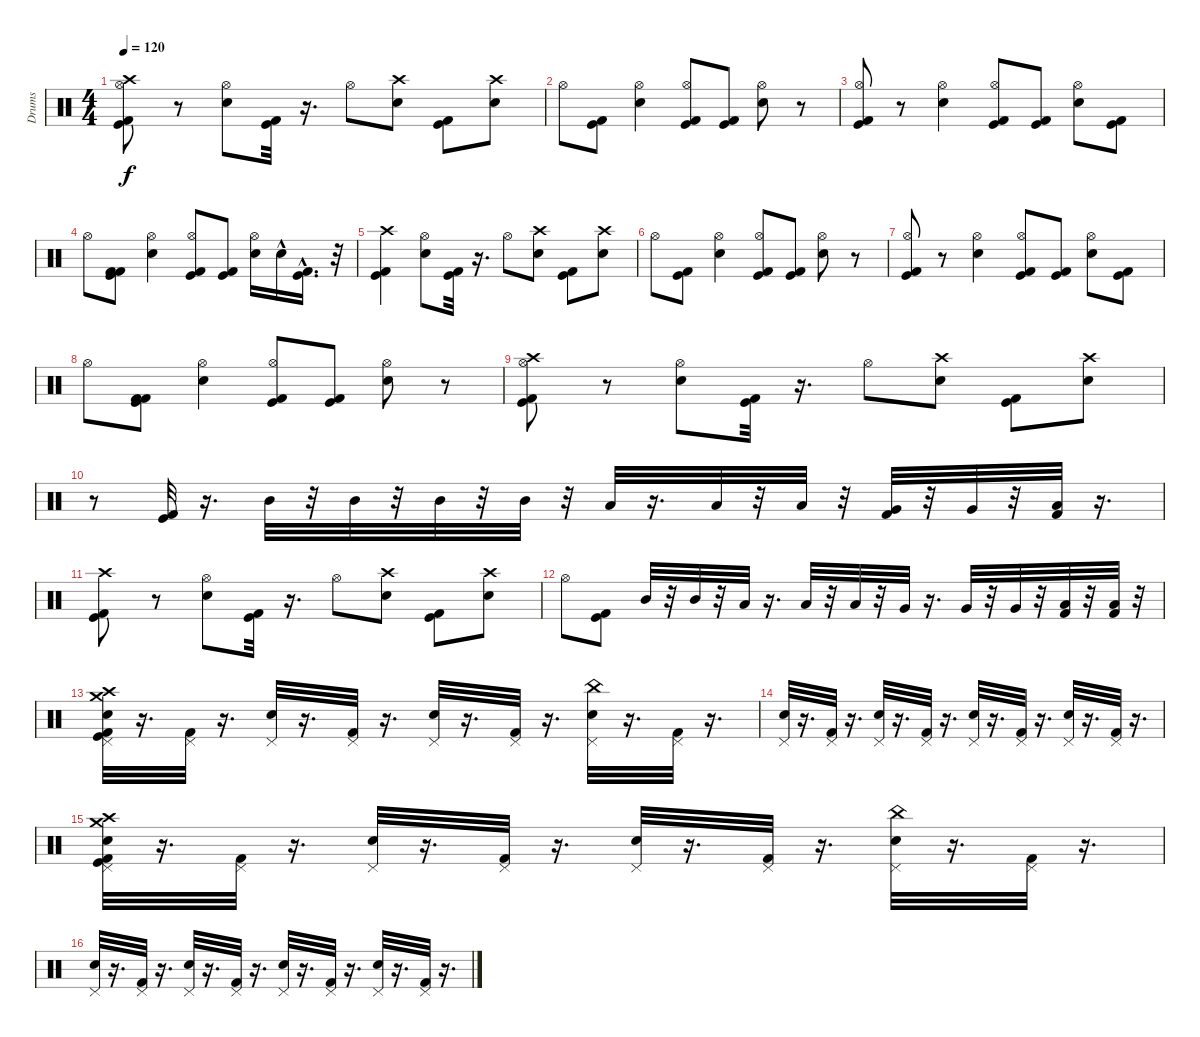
\track ("Drums" "Drums") {instrument percussion}
\staff {score}
\articulation defaults
\ts (4 4)
\tempo 120
\clef neutral
\ks c
("Kick (hit) 2" "Hi-Hat (open)" "Kick (hit)" "Crash high (hit)").8{dy f} r.8 ("Snare (hit) 2" "Hi-Hat (open)").8 ("Kick (hit)" "Kick (hit) 2").32 r.16{d} "Hi-Hat (open)".8 ("Crash high (hit)" "Snare (hit) 2").8 ("Kick (hit)" "Kick (hit) 2").8 ("Crash high (hit)" "Snare (hit) 2").8 |
"Hi-Hat (open)".8 ("Kick (hit)" "Kick (hit) 2").8 ("Hi-Hat (open)" "Snare (hit) 2").4 ("Kick (hit)" "Kick (hit) 2" "Hi-Hat (open)").8 ("Kick (hit)" "Kick (hit) 2").8 ("Snare (hit) 2" "Hi-Hat (open)").8 r.8 |
("Kick (hit) 2" "Hi-Hat (open)" "Kick (hit)").8 r.8 ("Snare (hit) 2" "Hi-Hat (open)").4 ("Hi-Hat (open)" "Kick (hit) 2" "Kick (hit)").8 ("Kick (hit)" "Kick (hit) 2").8 ("Hi-Hat (open)" "Snare (hit) 2").8 ("Kick (hit)" "Kick (hit) 2").8 |
"Hi-Hat (open)".8 ("Kick (hit)" "Kick (hit) 2" "Kick (hit) 2").8 ("Hi-Hat (open)" "Snare (hit) 2").4 ("Hi-Hat (open)" "Kick (hit) 2" "Kick (hit)").8 ("Kick (hit)" "Kick (hit) 2").8 ("Hi-Hat (open)" "Snare (hit) 2").16 "Snare (hit) 2"{hac}.16 ("Kick (hit) 2"{hac} "Kick (hit)"{hac}).16{d} r.32 |
("Kick (hit)" "Kick (hit) 2" "Crash high (hit)").4 ("Snare (hit) 2" "Hi-Hat (open)").8 ("Kick (hit) 2" "Kick (hit)").32 r.16{d} "Hi-Hat (open)".8 ("Snare (hit) 2" "Crash high (hit)").8 ("Kick (hit) 2" "Kick (hit)").8 ("Crash high (hit)" "Snare (hit) 2").8 |
"Hi-Hat (open)".8 ("Kick (hit)" "Kick (hit) 2").8 ("Snare (hit) 2" "Hi-Hat (open)").4 ("Kick (hit)" "Kick (hit) 2" "Hi-Hat (open)").8 ("Kick (hit)" "Kick (hit) 2").8 ("Hi-Hat (open)" "Snare (hit) 2").8 r.8 |
("Kick (hit) 2" "Kick (hit)" "Hi-Hat (open)").8 r.8 ("Snare (hit) 2" "Hi-Hat (open)").4 ("Hi-Hat (open)" "Kick (hit) 2" "Kick (hit)").8 ("Kick (hit) 2" "Kick (hit)").8 ("Snare (hit) 2" "Hi-Hat (open)").8 ("Kick (hit)" "Kick (hit) 2").8 |
"Hi-Hat (open)".8 ("Kick (hit) 2" "Kick (hit) 2" "Kick (hit)").8 ("Snare (hit) 2" "Hi-Hat (open)").4 ("Kick (hit) 2" "Hi-Hat (open)" "Kick (hit)").8 ("Kick (hit) 2" "Kick (hit)").8 ("Hi-Hat (open)" "Snare (hit) 2").8 r.8 |
("Kick (hit)" "Kick (hit) 2" "Crash high (hit)" "Hi-Hat (open)").8 r.8 ("Snare (hit) 2" "Hi-Hat (open)").8 ("Kick (hit) 2" "Kick (hit)").32 r.16{d} "Hi-Hat (open)".8 ("Snare (hit) 2" "Crash high (hit)").8 ("Kick (hit)" "Kick (hit) 2").8 ("Crash high (hit)" "Snare (hit) 2").8 |
r.8 ("Kick (hit) 2" "Kick (hit)").32 r.16{d} "Mid Tom (hit)".32 r.32 "Mid Tom (hit)".32 r.32 "Mid Tom (hit)".32 r.32 "Mid Tom (hit)".32 r.32 "Low Tom (hit)".32 r.16{d} "Low Tom (hit)".32 r.32 "Low Tom (hit)".32 r.32 ("Very Low Tom (hit)" "Kick (hit) 2").32 r.32 "Very Low Tom (hit)".32 r.32 ("Low Floor Tom (hit)" "Kick (hit) 2").32 r.16{d} |
("Kick (hit)" "Crash high (hit)" "Kick (hit) 2").8 r.8 ("Snare (hit) 2" "Hi-Hat (open)").8 ("Kick (hit) 2" "Kick (hit)").32 r.16{d} "Hi-Hat (open)".8 ("Snare (hit) 2" "Crash high (hit)").8 ("Kick (hit) 2" "Kick (hit)").8 ("Snare (hit) 2" "Crash high (hit)").8 |
"Hi-Hat (open)".8 ("Kick (hit)" "Kick (hit) 2").8 "Mid Tom (hit)".32 r.32 "Mid Tom (hit)".32 r.32 "Low Tom (hit)".32 r.16{d} "Low Tom (hit)".32 r.32 "Low Tom (hit)".32 r.32 "Very Low Tom (hit)".32 r.16{d} "Very Low Tom (hit)".32 r.32 "Very Low Tom (hit)".32 r.32 ("Low Floor Tom (hit)" "Kick (hit) 2").32 r.32 ("Kick (hit) 2" "Low Floor Tom (hit)").32 r.32 |
("Pedal Hi-Hat (hit)" "Kick (hit)" "Kick (hit) 2" "Crash medium (hit)" "Crash high (hit)" "Snare (hit) 2").32 r.16{d} ("Pedal Hi-Hat (hit)" "Kick (hit) 2").32 r.16{d} ("Snare (hit) 2" "Pedal Hi-Hat (hit)").32 r.16{d} ("Pedal Hi-Hat (hit)" "Kick (hit) 2").32 r.16{d} ("Snare (hit) 2" "Pedal Hi-Hat (hit)").32 r.16{d} ("Pedal Hi-Hat (hit)" "Kick (hit) 2").32 r.16{d} ("China (hit)" "Pedal Hi-Hat (hit)" "Snare (hit) 2").32 r.16{d} ("Pedal Hi-Hat (hit)" "Kick (hit) 2").32 r.16{d} |
("Pedal Hi-Hat (hit)" "Snare (hit) 2").32 r.16{d} ("Kick (hit) 2" "Pedal Hi-Hat (hit)").32 r.16{d} ("Pedal Hi-Hat (hit)" "Snare (hit) 2").32 r.16{d} ("Pedal Hi-Hat (hit)" "Kick (hit) 2").32 r.16{d} ("Pedal Hi-Hat (hit)" "Snare (hit) 2").32 r.16{d} ("Pedal Hi-Hat (hit)" "Kick (hit) 2").32 r.16{d} ("Pedal Hi-Hat (hit)" "Snare (hit) 2").32 r.16{d} ("Pedal Hi-Hat (hit)" "Kick (hit) 2").32 r.16{d} |
("Crash medium (hit)" "Kick (hit)" "Kick (hit) 2" "Snare (hit) 2" "Pedal Hi-Hat (hit)" "Crash high (hit)").32 r.16{d} ("Pedal Hi-Hat (hit)" "Kick (hit) 2").32 r.16{d} ("Snare (hit) 2" "Pedal Hi-Hat (hit)").32 r.16{d} ("Pedal Hi-Hat (hit)" "Kick (hit) 2").32 r.16{d} ("Pedal Hi-Hat (hit)" "Snare (hit) 2").32 r.16{d} ("Kick (hit) 2" "Pedal Hi-Hat (hit)").32 r.16{d} ("China (hit)" "Pedal Hi-Hat (hit)" "Snare (hit) 2").32 r.16{d} ("Pedal Hi-Hat (hit)" "Kick (hit) 2").32 r.16{d} |
("Snare (hit) 2" "Pedal Hi-Hat (hit)").32 r.16{d} ("Kick (hit) 2" "Pedal Hi-Hat (hit)").32 r.16{d} ("Pedal Hi-Hat (hit)" "Snare (hit) 2").32 r.16{d} ("Kick (hit) 2" "Pedal Hi-Hat (hit)").32 r.16{d} ("Pedal Hi-Hat (hit)" "Snare (hit) 2").32 r.16{d} ("Pedal Hi-Hat (hit)" "Kick (hit) 2").32 r.16{d} ("Snare (hit) 2" "Pedal Hi-Hat (hit)").32 r.16{d} ("Kick (hit) 2" "Pedal Hi-Hat (hit)").32 r.16{d}
